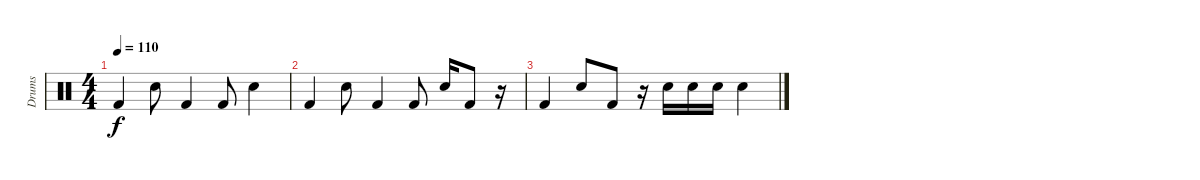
\track ("Drums" "Drums") {instrument percussion}
\staff {score}
\articulation defaults
\ts (4 4)
\tempo 110
\clef neutral
\ks c "Kick (hit) 2".4{dy f} "Electric Snare (hit)".8 "Kick (hit) 2".4 "Kick (hit) 2".8 "Electric Snare (hit)".4
|
"Kick (hit) 2".4 "Electric Snare (hit)".8 "Kick (hit) 2".4 "Kick (hit) 2".8 "Electric Snare (hit)".16 "Kick (hit) 2".8 r.16 |
"Kick (hit) 2".4 "Electric Snare (hit)".8 "Kick (hit) 2".8 r.16 "Electric Snare (hit)".16 "Electric Snare (hit)".16 "Electric Snare (hit)".16 "Electric Snare (hit)".4
